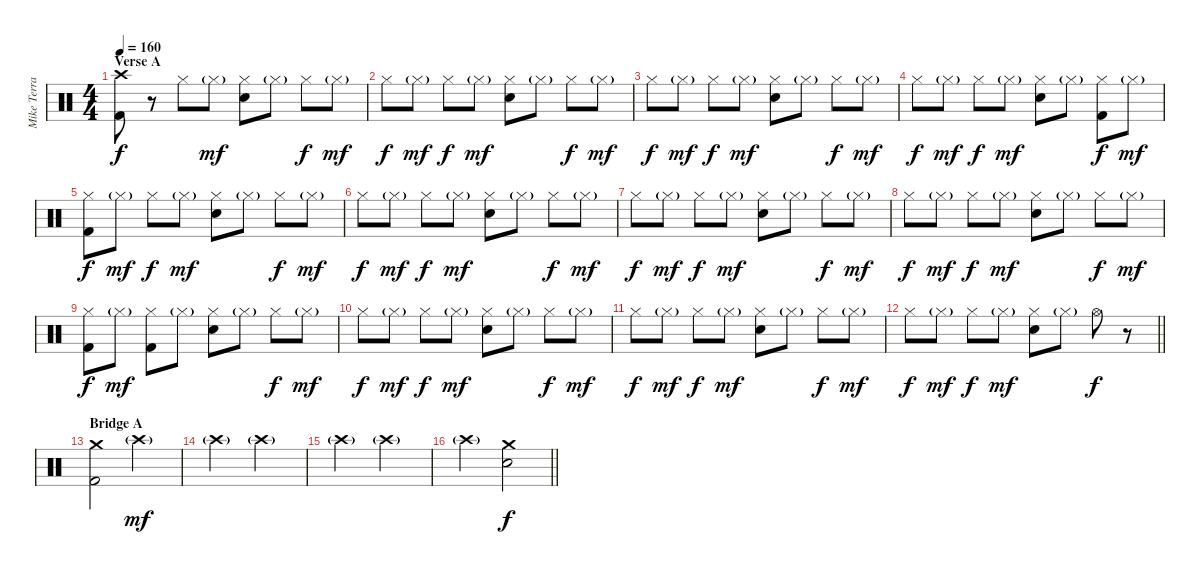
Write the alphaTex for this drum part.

\track ("Mike Terrana" "Mike Terra") {instrument percussion}
\staff {score}
\articulation defaults
\ts (4 4)
\section ("" "Verse A")
\tempo 160
\clef neutral
\ks c
("Crash high (hit)" "Kick (hit) 2").8{dy f} r.8 "Hi-Hat (closed)".8 "Hi-Hat (closed)"{g}.8{dy mf} ("Hi-Hat (closed)" "Snare (hit) 2").8 "Hi-Hat (closed)"{g}.8 "Hi-Hat (closed)".8{dy f} "Hi-Hat (closed)"{g}.8{dy mf} |
"Hi-Hat (closed)".8{dy f} "Hi-Hat (closed)"{g}.8{dy mf} "Hi-Hat (closed)".8{dy f} "Hi-Hat (closed)"{g}.8{dy mf} ("Hi-Hat (closed)" "Snare (hit) 2").8 "Hi-Hat (closed)"{g}.8 "Hi-Hat (closed)".8{dy f} "Hi-Hat (closed)"{g}.8{dy mf} |
"Hi-Hat (closed)".8{dy f} "Hi-Hat (closed)"{g}.8{dy mf} "Hi-Hat (closed)".8{dy f} "Hi-Hat (closed)"{g}.8{dy mf} ("Hi-Hat (closed)" "Snare (hit) 2").8 "Hi-Hat (closed)"{g}.8 "Hi-Hat (closed)".8{dy f} "Hi-Hat (closed)"{g}.8{dy mf} |
"Hi-Hat (closed)".8{dy f} "Hi-Hat (closed)"{g}.8{dy mf} "Hi-Hat (closed)".8{dy f} "Hi-Hat (closed)"{g}.8{dy mf} ("Hi-Hat (closed)" "Snare (hit) 2").8 "Hi-Hat (closed)"{g}.8 ("Hi-Hat (closed)" "Kick (hit) 2").8{dy f} "Hi-Hat (closed)"{g}.8{dy mf} |
("Hi-Hat (closed)" "Kick (hit) 2").8{dy f} "Hi-Hat (closed)"{g}.8{dy mf} "Hi-Hat (closed)".8{dy f} "Hi-Hat (closed)"{g}.8{dy mf} ("Hi-Hat (closed)" "Snare (hit) 2").8 "Hi-Hat (closed)"{g}.8 "Hi-Hat (closed)".8{dy f} "Hi-Hat (closed)"{g}.8{dy mf} |
"Hi-Hat (closed)".8{dy f} "Hi-Hat (closed)"{g}.8{dy mf} "Hi-Hat (closed)".8{dy f} "Hi-Hat (closed)"{g}.8{dy mf} ("Hi-Hat (closed)" "Snare (hit) 2").8 "Hi-Hat (closed)"{g}.8 "Hi-Hat (closed)".8{dy f} "Hi-Hat (closed)"{g}.8{dy mf} |
"Hi-Hat (closed)".8{dy f} "Hi-Hat (closed)"{g}.8{dy mf} "Hi-Hat (closed)".8{dy f} "Hi-Hat (closed)"{g}.8{dy mf} ("Hi-Hat (closed)" "Snare (hit) 2").8 "Hi-Hat (closed)"{g}.8 "Hi-Hat (closed)".8{dy f} "Hi-Hat (closed)"{g}.8{dy mf} |
"Hi-Hat (closed)".8{dy f} "Hi-Hat (closed)"{g}.8{dy mf} "Hi-Hat (closed)".8{dy f} "Hi-Hat (closed)"{g}.8{dy mf} ("Hi-Hat (closed)" "Snare (hit) 2").8 "Hi-Hat (closed)"{g}.8 "Hi-Hat (closed)".8{dy f} "Hi-Hat (closed)"{g}.8{dy mf} |
("Hi-Hat (closed)" "Kick (hit) 2").8{dy f} "Hi-Hat (closed)"{g}.8{dy mf} ("Hi-Hat (closed)" "Kick (hit) 2").8 "Hi-Hat (closed)"{g}.8 ("Hi-Hat (closed)" "Snare (hit) 2").8 "Hi-Hat (closed)"{g}.8 "Hi-Hat (closed)".8{dy f} "Hi-Hat (closed)"{g}.8{dy mf} |
"Hi-Hat (closed)".8{dy f} "Hi-Hat (closed)"{g}.8{dy mf} "Hi-Hat (closed)".8{dy f} "Hi-Hat (closed)"{g}.8{dy mf} ("Hi-Hat (closed)" "Snare (hit) 2").8 "Hi-Hat (closed)"{g}.8 "Hi-Hat (closed)".8{dy f} "Hi-Hat (closed)"{g}.8{dy mf} |
"Hi-Hat (closed)".8{dy f} "Hi-Hat (closed)"{g}.8{dy mf} "Hi-Hat (closed)".8{dy f} "Hi-Hat (closed)"{g}.8{dy mf} ("Hi-Hat (closed)" "Snare (hit) 2").8 "Hi-Hat (closed)"{g}.8 "Hi-Hat (closed)".8{dy f} "Hi-Hat (closed)"{g}.8{dy mf} |
\barLineRight lightlight "Hi-Hat (closed)".8{dy f} "Hi-Hat (closed)"{g}.8{dy mf} "Hi-Hat (closed)".8{dy f} "Hi-Hat (closed)"{g}.8{dy mf}
("Hi-Hat (closed)" "Snare (hit) 2").8 "Hi-Hat (closed)"{g}.8 "Hi-Hat (open)".8{dy f} r.8 |
\section ("" "Bridge A")
("Crash medium (hit)" "Kick (hit) 2").2 "Crash high (hit)"{g}.2{dy mf} |
"Crash high (hit)"{g}.2 "Crash high (hit)"{g}.2 |
"Crash high (hit)"{g}.2 "Crash high (hit)"{g}.2 |
\barLineRight lightlight "Crash high (hit)"{g}.2
("Crash medium (hit)" "Snare (hit) 2").2{dy f}
